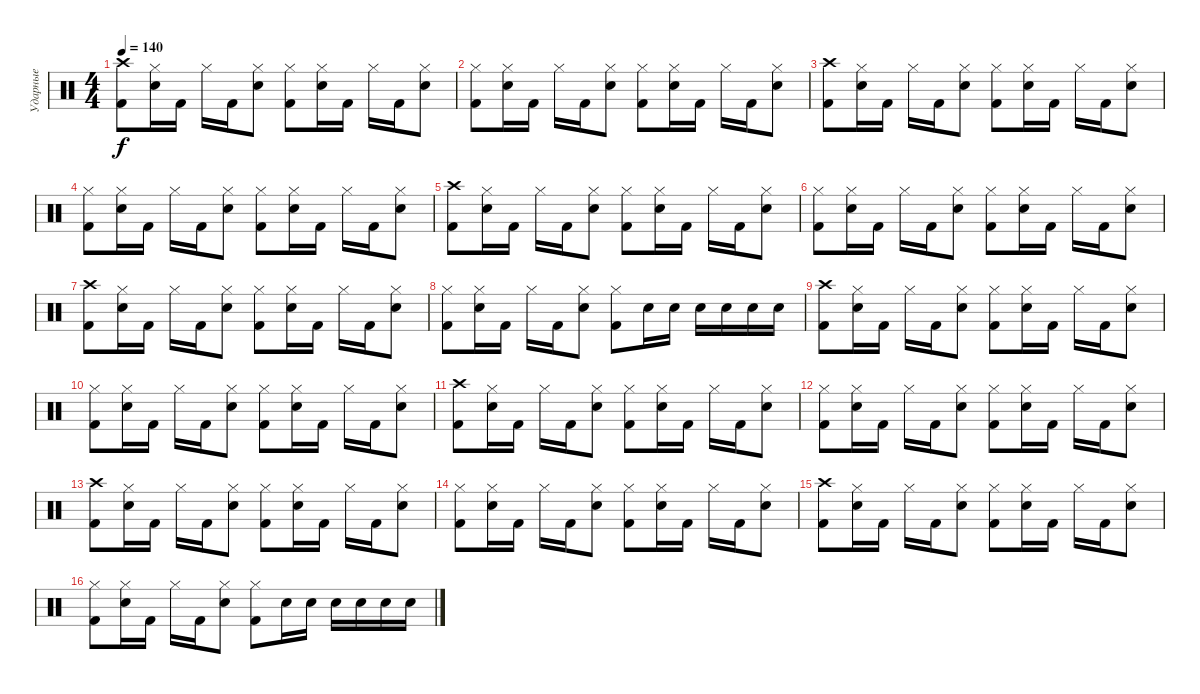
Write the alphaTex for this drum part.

\track ("Ударные" "Ударные") {instrument percussion}
\staff {score}
\articulation defaults
\ts (4 4)
\tempo 140
\clef neutral
\ks c
("Crash high (hit)" "Kick (hit) 2").8{dy f} ("Hi-Hat (closed)" "Electric Snare (hit)").16 "Kick (hit) 2".16 "Hi-Hat (closed)".16 "Kick (hit) 2".16 ("Hi-Hat (closed)" "Electric Snare (hit)").8 ("Hi-Hat (closed)" "Kick (hit) 2").8 ("Hi-Hat (closed)" "Electric Snare (hit)").16 "Kick (hit) 2".16 "Hi-Hat (closed)".16 "Kick (hit) 2".16 ("Hi-Hat (closed)" "Electric Snare (hit)").8 |
("Hi-Hat (closed)" "Kick (hit) 2").8 ("Hi-Hat (closed)" "Electric Snare (hit)").16 "Kick (hit) 2".16 "Hi-Hat (closed)".16 "Kick (hit) 2".16 ("Hi-Hat (closed)" "Electric Snare (hit)").8 ("Hi-Hat (closed)" "Kick (hit) 2").8 ("Hi-Hat (closed)" "Electric Snare (hit)").16 "Kick (hit) 2".16 "Hi-Hat (closed)".16 "Kick (hit) 2".16 ("Hi-Hat (closed)" "Electric Snare (hit)").8 |
("Crash high (hit)" "Kick (hit) 2").8 ("Hi-Hat (closed)" "Electric Snare (hit)").16 "Kick (hit) 2".16 "Hi-Hat (closed)".16 "Kick (hit) 2".16 ("Hi-Hat (closed)" "Electric Snare (hit)").8 ("Hi-Hat (closed)" "Kick (hit) 2").8 ("Hi-Hat (closed)" "Electric Snare (hit)").16 "Kick (hit) 2".16 "Hi-Hat (closed)".16 "Kick (hit) 2".16 ("Hi-Hat (closed)" "Electric Snare (hit)").8 |
("Hi-Hat (closed)" "Kick (hit) 2").8 ("Hi-Hat (closed)" "Electric Snare (hit)").16 "Kick (hit) 2".16 "Hi-Hat (closed)".16 "Kick (hit) 2".16 ("Hi-Hat (closed)" "Electric Snare (hit)").8 ("Hi-Hat (closed)" "Kick (hit) 2").8 ("Hi-Hat (closed)" "Electric Snare (hit)").16 "Kick (hit) 2".16 "Hi-Hat (closed)".16 "Kick (hit) 2".16 ("Hi-Hat (closed)" "Electric Snare (hit)").8 |
("Crash high (hit)" "Kick (hit) 2").8 ("Hi-Hat (closed)" "Electric Snare (hit)").16 "Kick (hit) 2".16 "Hi-Hat (closed)".16 "Kick (hit) 2".16 ("Hi-Hat (closed)" "Electric Snare (hit)").8 ("Hi-Hat (closed)" "Kick (hit) 2").8 ("Hi-Hat (closed)" "Electric Snare (hit)").16 "Kick (hit) 2".16 "Hi-Hat (closed)".16 "Kick (hit) 2".16 ("Hi-Hat (closed)" "Electric Snare (hit)").8 |
("Hi-Hat (closed)" "Kick (hit) 2").8 ("Hi-Hat (closed)" "Electric Snare (hit)").16 "Kick (hit) 2".16 "Hi-Hat (closed)".16 "Kick (hit) 2".16 ("Hi-Hat (closed)" "Electric Snare (hit)").8 ("Hi-Hat (closed)" "Kick (hit) 2").8 ("Hi-Hat (closed)" "Electric Snare (hit)").16 "Kick (hit) 2".16 "Hi-Hat (closed)".16 "Kick (hit) 2".16 ("Hi-Hat (closed)" "Electric Snare (hit)").8 |
("Crash high (hit)" "Kick (hit) 2").8 ("Hi-Hat (closed)" "Electric Snare (hit)").16 "Kick (hit) 2".16 "Hi-Hat (closed)".16 "Kick (hit) 2".16 ("Hi-Hat (closed)" "Electric Snare (hit)").8 ("Hi-Hat (closed)" "Kick (hit) 2").8 ("Hi-Hat (closed)" "Electric Snare (hit)").16 "Kick (hit) 2".16 "Hi-Hat (closed)".16 "Kick (hit) 2".16 ("Hi-Hat (closed)" "Electric Snare (hit)").8 |
("Hi-Hat (closed)" "Kick (hit) 2").8 ("Hi-Hat (closed)" "Electric Snare (hit)").16 "Kick (hit) 2".16 "Hi-Hat (closed)".16 "Kick (hit) 2".16 ("Hi-Hat (closed)" "Electric Snare (hit)").8 ("Hi-Hat (closed)" "Kick (hit) 2").8 "Electric Snare (hit)".16 "Electric Snare (hit)".16 "Electric Snare (hit)".16 "Electric Snare (hit)".16 "Electric Snare (hit)".16 "Electric Snare (hit)".16 |
("Crash high (hit)" "Kick (hit) 2").8 ("Hi-Hat (closed)" "Electric Snare (hit)").16 "Kick (hit) 2".16 "Hi-Hat (closed)".16 "Kick (hit) 2".16 ("Hi-Hat (closed)" "Electric Snare (hit)").8 ("Hi-Hat (closed)" "Kick (hit) 2").8 ("Hi-Hat (closed)" "Electric Snare (hit)").16 "Kick (hit) 2".16 "Hi-Hat (closed)".16 "Kick (hit) 2".16 ("Hi-Hat (closed)" "Electric Snare (hit)").8 |
("Hi-Hat (closed)" "Kick (hit) 2").8 ("Hi-Hat (closed)" "Electric Snare (hit)").16 "Kick (hit) 2".16 "Hi-Hat (closed)".16 "Kick (hit) 2".16 ("Hi-Hat (closed)" "Electric Snare (hit)").8 ("Hi-Hat (closed)" "Kick (hit) 2").8 ("Hi-Hat (closed)" "Electric Snare (hit)").16 "Kick (hit) 2".16 "Hi-Hat (closed)".16 "Kick (hit) 2".16 ("Hi-Hat (closed)" "Electric Snare (hit)").8 |
("Crash high (hit)" "Kick (hit) 2").8 ("Hi-Hat (closed)" "Electric Snare (hit)").16 "Kick (hit) 2".16 "Hi-Hat (closed)".16 "Kick (hit) 2".16 ("Hi-Hat (closed)" "Electric Snare (hit)").8 ("Hi-Hat (closed)" "Kick (hit) 2").8 ("Hi-Hat (closed)" "Electric Snare (hit)").16 "Kick (hit) 2".16 "Hi-Hat (closed)".16 "Kick (hit) 2".16 ("Hi-Hat (closed)" "Electric Snare (hit)").8 |
("Hi-Hat (closed)" "Kick (hit) 2").8 ("Hi-Hat (closed)" "Electric Snare (hit)").16 "Kick (hit) 2".16 "Hi-Hat (closed)".16 "Kick (hit) 2".16 ("Hi-Hat (closed)" "Electric Snare (hit)").8 ("Hi-Hat (closed)" "Kick (hit) 2").8 ("Hi-Hat (closed)" "Electric Snare (hit)").16 "Kick (hit) 2".16 "Hi-Hat (closed)".16 "Kick (hit) 2".16 ("Hi-Hat (closed)" "Electric Snare (hit)").8 |
("Crash high (hit)" "Kick (hit) 2").8 ("Hi-Hat (closed)" "Electric Snare (hit)").16 "Kick (hit) 2".16 "Hi-Hat (closed)".16 "Kick (hit) 2".16 ("Hi-Hat (closed)" "Electric Snare (hit)").8 ("Hi-Hat (closed)" "Kick (hit) 2").8 ("Hi-Hat (closed)" "Electric Snare (hit)").16 "Kick (hit) 2".16 "Hi-Hat (closed)".16 "Kick (hit) 2".16 ("Hi-Hat (closed)" "Electric Snare (hit)").8 |
("Hi-Hat (closed)" "Kick (hit) 2").8 ("Hi-Hat (closed)" "Electric Snare (hit)").16 "Kick (hit) 2".16 "Hi-Hat (closed)".16 "Kick (hit) 2".16 ("Hi-Hat (closed)" "Electric Snare (hit)").8 ("Hi-Hat (closed)" "Kick (hit) 2").8 ("Hi-Hat (closed)" "Electric Snare (hit)").16 "Kick (hit) 2".16 "Hi-Hat (closed)".16 "Kick (hit) 2".16 ("Hi-Hat (closed)" "Electric Snare (hit)").8 |
("Crash high (hit)" "Kick (hit) 2").8 ("Hi-Hat (closed)" "Electric Snare (hit)").16 "Kick (hit) 2".16 "Hi-Hat (closed)".16 "Kick (hit) 2".16 ("Hi-Hat (closed)" "Electric Snare (hit)").8 ("Hi-Hat (closed)" "Kick (hit) 2").8 ("Hi-Hat (closed)" "Electric Snare (hit)").16 "Kick (hit) 2".16 "Hi-Hat (closed)".16 "Kick (hit) 2".16 ("Hi-Hat (closed)" "Electric Snare (hit)").8 |
("Hi-Hat (closed)" "Kick (hit) 2").8 ("Hi-Hat (closed)" "Electric Snare (hit)").16 "Kick (hit) 2".16 "Hi-Hat (closed)".16 "Kick (hit) 2".16 ("Hi-Hat (closed)" "Electric Snare (hit)").8 ("Hi-Hat (closed)" "Kick (hit) 2").8 "Electric Snare (hit)".16 "Electric Snare (hit)".16 "Electric Snare (hit)".16 "Electric Snare (hit)".16 "Electric Snare (hit)".16 "Electric Snare (hit)".16
